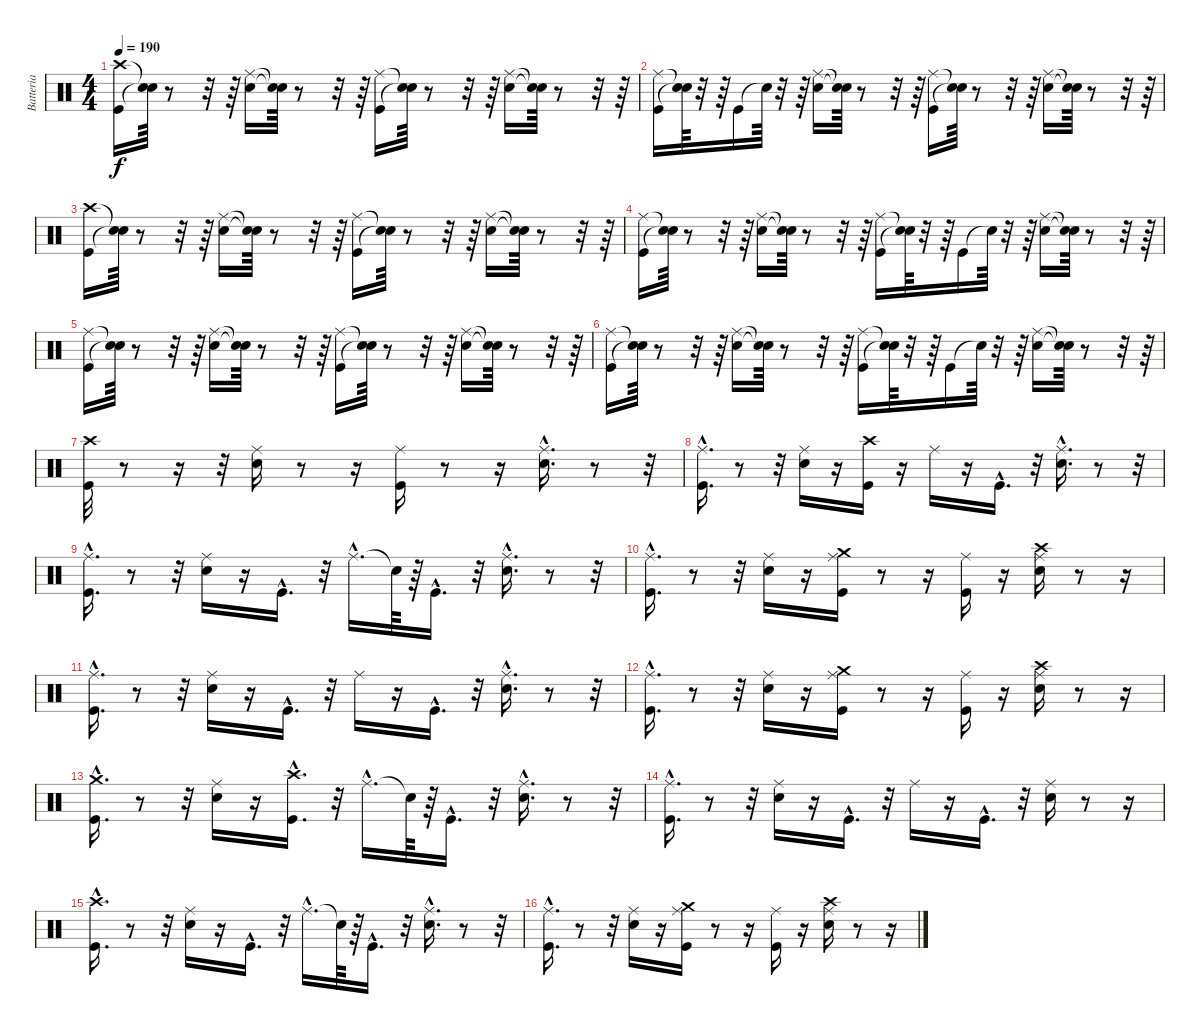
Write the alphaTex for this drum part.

\track ("Batteria" "Batteria") {instrument percussion}
\staff {score}
\articulation defaults
\ts (4 4)
\tempo 190
\clef neutral
\ks c
("Kick (hit)" "Crash high (hit)").16{dy f} ("Snare (hit)"{t} "Snare (hit)"{t}).64 r.8 r.32 r.64 ("Ride (middle)" "Snare (hit) 2").16 ("Snare (hit)"{t} "Snare (hit)"{t}).64 r.8 r.32 r.64 ("Ride (middle)" "Kick (hit)").16 ("Snare (hit)"{t} "Snare (hit)"{t}).64 r.8 r.32 r.64 ("Ride (middle)" "Snare (hit) 2").16 ("Snare (hit)"{t} "Snare (hit)"{t}).64 r.8 r.32 r.64 |
("Ride (middle)" "Kick (hit)").16 ("Snare (hit)"{t} "Snare (hit)"{t}).64 r.32 r.64 "Kick (hit)".16 "Snare (hit)"{t}.64 r.32 r.64 ("Snare (hit) 2" "Ride (middle)").16 ("Snare (hit)"{t} "Snare (hit)"{t}).64 r.8 r.32 r.64 ("Kick (hit)" "Ride (middle)").16 ("Snare (hit)"{t} "Snare (hit)"{t}).64 r.8 r.32 r.64 ("Snare (hit) 2" "Ride (middle)").16 ("Snare (hit)"{t} "Snare (hit)"{t}).64 r.8 r.32 r.64 |
("Crash high (hit)" "Kick (hit)").16 ("Snare (hit)"{t} "Snare (hit)"{t}).64 r.8 r.32 r.64 ("Ride (middle)" "Snare (hit) 2").16 ("Snare (hit)"{t} "Snare (hit)"{t}).64 r.8 r.32 r.64 ("Ride (middle)" "Kick (hit)").16 ("Snare (hit)"{t} "Snare (hit)"{t}).64 r.8 r.32 r.64 ("Ride (middle)" "Snare (hit) 2").16 ("Snare (hit)"{t} "Snare (hit)"{t}).64 r.8 r.32 r.64 |
("Kick (hit)" "Ride (middle)").16 ("Snare (hit)"{t} "Snare (hit)"{t}).64 r.8 r.32 r.64 ("Snare (hit) 2" "Ride (middle)").16 ("Snare (hit)"{t} "Snare (hit)"{t}).64 r.8 r.32 r.64 ("Kick (hit)" "Ride (middle)").16 ("Snare (hit)"{t} "Snare (hit)"{t}).64 r.32 r.64 "Kick (hit)".16 "Snare (hit)"{t}.64 r.32 r.64 ("Snare (hit) 2" "Ride (middle)").16 ("Snare (hit)"{t} "Snare (hit)"{t}).64 r.8 r.32 r.64 |
("Kick (hit)" "Ride (middle)").16 ("Snare (hit)"{t} "Snare (hit)"{t}).64 r.8 r.32 r.64 ("Ride (middle)" "Snare (hit) 2").16 ("Snare (hit)"{t} "Snare (hit)"{t}).64 r.8 r.32 r.64 ("Ride (middle)" "Kick (hit)").16 ("Snare (hit)"{t} "Snare (hit)"{t}).64 r.8 r.32 r.64 ("Ride (middle)" "Snare (hit) 2").16 ("Snare (hit)"{t} "Snare (hit)"{t}).64 r.8 r.32 r.64 |
("Kick (hit)" "Ride (middle)").16 ("Snare (hit)"{t} "Snare (hit)"{t}).64 r.8 r.32 r.64 ("Snare (hit) 2" "Ride (middle)").16 ("Snare (hit)"{t} "Snare (hit)"{t}).64 r.8 r.32 r.64 ("Kick (hit)" "Ride (middle)").16 ("Snare (hit)"{t} "Snare (hit)"{t}).64 r.32 r.64 "Kick (hit)".16 "Snare (hit)"{t}.64 r.32 r.64 ("Snare (hit) 2" "Ride (middle)").16 ("Snare (hit)"{t} "Snare (hit)"{t}).64 r.8 r.32 r.64 |
("Crash high (hit)" "Kick (hit)").32 r.8 r.16 r.32 ("Snare (hit) 2" "Ride (middle)").16 r.8 r.16 ("Ride (middle)" "Kick (hit)").16 r.8 r.16 ("Ride (middle)"{hac} "Snare (hit) 2"{hac}).16{d} r.8 r.32 |
("Kick (hit)"{hac} "Ride (middle)"{hac}).16{d} r.8 r.32 ("Snare (hit) 2" "Ride (middle)").16 r.16 ("Crash high (hit)" "Kick (hit)").16 r.16 "Ride (middle)".16 r.16 "Kick (hit)"{hac}.16{d} r.32 ("Snare (hit) 2"{hac} "Ride (middle)"{hac}).16{d} r.8 r.32 |
("Kick (hit)"{hac} "Ride (middle)"{hac}).16{d} r.8 r.32 ("Snare (hit) 2" "Ride (middle)").16 r.16 "Kick (hit)"{hac}.16{d} r.32 "Ride (middle)"{hac}.16{d} "Snare (hit)"{t}.64 r.64 "Kick (hit)"{hac}.16{d} r.32 ("Snare (hit) 2"{hac} "Ride (middle)"{hac}).16{d} r.8 r.32 |
("Kick (hit)"{hac} "Ride (middle)"{hac}).16{d} r.8 r.32 ("Snare (hit) 2" "Ride (middle)").16 r.16 ("Ride (middle)" "Crash medium (hit)" "Kick (hit)").16 r.8 r.16 ("Kick (hit)" "Ride (middle)").16 r.16 ("Ride (middle)" "Crash high (hit)" "Snare (hit) 2").16 r.8 r.16 |
("Kick (hit)"{hac} "Ride (middle)"{hac}).16{d} r.8 r.32 ("Ride (middle)" "Snare (hit) 2").16 r.16 "Kick (hit)"{hac}.16{d} r.32 "Ride (middle)".16 r.16 "Kick (hit)"{hac}.16{d} r.32 ("Snare (hit) 2"{hac} "Ride (middle)"{hac}).16{d} r.8 r.32 |
("Kick (hit)"{hac} "Ride (middle)"{hac}).16{d} r.8 r.32 ("Snare (hit) 2" "Ride (middle)").16 r.16 ("Ride (middle)" "Kick (hit)" "Crash medium (hit)").16 r.8 r.16 ("Kick (hit)" "Ride (middle)").16 r.16 ("Ride (middle)" "Snare (hit) 2" "Crash high (hit)").16 r.8 r.16 |
("Crash medium (hit)"{hac} "Kick (hit)"{hac}).16{d} r.8 r.32 ("Snare (hit) 2" "Ride (middle)").16 r.16 ("Kick (hit)"{hac} "Crash high (hit)"{hac}).16{d} r.32 "Ride (middle)"{hac}.16{d} "Snare (hit)"{t}.64 r.64 "Kick (hit)"{hac}.16{d} r.32 ("Snare (hit) 2"{hac} "Ride (middle)"{hac}).16{d} r.8 r.32 |
("Kick (hit)"{hac} "Ride (middle)"{hac}).16{d} r.8 r.32 ("Snare (hit) 2" "Ride (middle)").16 r.16 "Kick (hit)"{hac}.16{d} r.32 "Ride (middle)".16 r.16 "Kick (hit)"{hac}.16{d} r.32 ("Ride (middle)" "Snare (hit) 2").16 r.8 r.16 |
("Crash high (hit)"{hac} "Kick (hit)"{hac}).16{d} r.8 r.32 ("Ride (middle)" "Snare (hit) 2").16 r.16 "Kick (hit)"{hac}.16{d} r.32 "Ride (middle)"{hac}.16{d} "Snare (hit)"{t}.64 r.64 "Kick (hit)"{hac}.16{d} r.32 ("Snare (hit) 2"{hac} "Ride (middle)"{hac}).16{d} r.8 r.32 |
("Kick (hit)"{hac} "Ride (middle)"{hac}).16{d} r.8 r.32 ("Ride (middle)" "Snare (hit) 2").16 r.16 ("Ride (middle)" "Crash medium (hit)" "Kick (hit)").16 r.8 r.16 ("Kick (hit)" "Ride (middle)").16 r.16 ("Ride (middle)" "Crash high (hit)" "Snare (hit) 2").16 r.8 r.16
